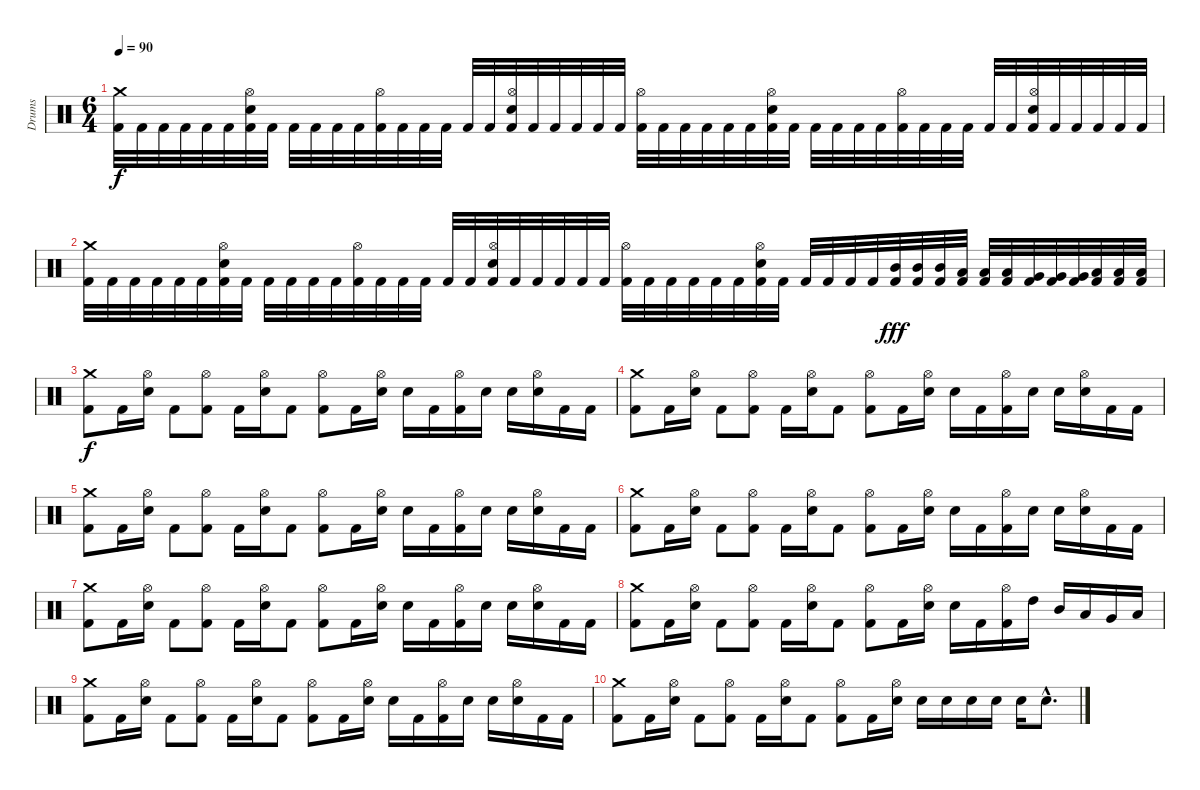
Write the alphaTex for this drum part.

\track ("Drums" "Drums") {instrument percussion}
\staff {score}
\articulation defaults
\ts (6 4)
\tempo 90
\clef neutral
\ks c
("Crash medium (hit)" "Kick (hit) 2").32{dy f} "Kick (hit) 2".32 "Kick (hit) 2".32 "Kick (hit) 2".32 "Kick (hit) 2".32 "Kick (hit) 2".32 ("Hi-Hat (open)" "Electric Snare (hit)" "Kick (hit) 2").32 "Kick (hit) 2".32 "Kick (hit) 2".32 "Kick (hit) 2".32 "Kick (hit) 2".32 "Kick (hit) 2".32 ("Hi-Hat (open)" "Kick (hit) 2").32 "Kick (hit) 2".32 "Kick (hit) 2".32 "Kick (hit) 2".32 "Kick (hit) 2".32 "Kick (hit) 2".32 ("Hi-Hat (open)" "Electric Snare (hit)" "Kick (hit) 2").32 "Kick (hit) 2".32 "Kick (hit) 2".32 "Kick (hit) 2".32 "Kick (hit) 2".32 "Kick (hit) 2".32 ("Hi-Hat (open)" "Kick (hit) 2").32 "Kick (hit) 2".32 "Kick (hit) 2".32 "Kick (hit) 2".32 "Kick (hit) 2".32 "Kick (hit) 2".32 ("Hi-Hat (open)" "Electric Snare (hit)" "Kick (hit) 2").32 "Kick (hit) 2".32 "Kick (hit) 2".32 "Kick (hit) 2".32 "Kick (hit) 2".32 "Kick (hit) 2".32 ("Hi-Hat (open)" "Kick (hit) 2").32 "Kick (hit) 2".32 "Kick (hit) 2".32 "Kick (hit) 2".32 "Kick (hit) 2".32 "Kick (hit) 2".32 ("Hi-Hat (open)" "Electric Snare (hit)" "Kick (hit) 2").32 "Kick (hit) 2".32 "Kick (hit) 2".32 "Kick (hit) 2".32 "Kick (hit) 2".32 "Kick (hit) 2".32 |
("Crash medium (hit)" "Kick (hit) 2").32 "Kick (hit) 2".32 "Kick (hit) 2".32 "Kick (hit) 2".32 "Kick (hit) 2".32 "Kick (hit) 2".32 ("Hi-Hat (open)" "Electric Snare (hit)" "Kick (hit) 2").32 "Kick (hit) 2".32 "Kick (hit) 2".32 "Kick (hit) 2".32 "Kick (hit) 2".32 "Kick (hit) 2".32 ("Hi-Hat (open)" "Kick (hit) 2").32 "Kick (hit) 2".32 "Kick (hit) 2".32 "Kick (hit) 2".32 "Kick (hit) 2".32 "Kick (hit) 2".32 ("Hi-Hat (open)" "Electric Snare (hit)" "Kick (hit) 2").32 "Kick (hit) 2".32 "Kick (hit) 2".32 "Kick (hit) 2".32 "Kick (hit) 2".32 "Kick (hit) 2".32 ("Hi-Hat (open)" "Kick (hit) 2").32 "Kick (hit) 2".32 "Kick (hit) 2".32 "Kick (hit) 2".32 "Kick (hit) 2".32 "Kick (hit) 2".32 ("Hi-Hat (open)" "Electric Snare (hit)" "Kick (hit) 2").32 "Kick (hit) 2".32 "Kick (hit) 2".32 "Kick (hit) 2".32 "Kick (hit) 2".32 "Kick (hit) 2".32 ("Mid Tom (hit)" "Kick (hit) 2").32{dy fff} ("Mid Tom (hit)" "Kick (hit) 2").32 ("Mid Tom (hit)" "Kick (hit) 2").32 ("Low Tom (hit)" "Kick (hit) 2").32 ("Low Tom (hit)" "Kick (hit) 2").32 ("Low Tom (hit)" "Kick (hit) 2").32 ("Very Low Tom (hit)" "Kick (hit) 2").32 ("Very Low Tom (hit)" "Kick (hit) 2").32 ("Very Low Tom (hit)" "Kick (hit) 2").32 ("Low Floor Tom (hit)" "Kick (hit) 2").32 ("Low Floor Tom (hit)" "Kick (hit) 2").32 ("Low Floor Tom (hit)" "Kick (hit) 2").32 |
("Crash medium (hit)" "Kick (hit) 2").8{dy f} "Kick (hit) 2".16 ("Hi-Hat (open)" "Electric Snare (hit)").16 "Kick (hit) 2".8 ("Hi-Hat (open)" "Kick (hit) 2").8 "Kick (hit) 2".16 ("Hi-Hat (open)" "Electric Snare (hit)").16 "Kick (hit) 2".8 ("Hi-Hat (open)" "Kick (hit) 2").8 "Kick (hit) 2".16 ("Hi-Hat (open)" "Electric Snare (hit)").16 "Electric Snare (hit)".16 "Kick (hit) 2".16 ("Hi-Hat (open)" "Kick (hit) 2").16 "Electric Snare (hit)".16 "Electric Snare (hit)".16 ("Hi-Hat (open)" "Electric Snare (hit)").16 "Kick (hit) 2".16 "Kick (hit) 2".16 |
("Crash medium (hit)" "Kick (hit) 2").8 "Kick (hit) 2".16 ("Hi-Hat (open)" "Electric Snare (hit)").16 "Kick (hit) 2".8 ("Hi-Hat (open)" "Kick (hit) 2").8 "Kick (hit) 2".16 ("Hi-Hat (open)" "Electric Snare (hit)").16 "Kick (hit) 2".8 ("Hi-Hat (open)" "Kick (hit) 2").8 "Kick (hit) 2".16 ("Hi-Hat (open)" "Electric Snare (hit)").16 "Electric Snare (hit)".16 "Kick (hit) 2".16 ("Hi-Hat (open)" "Kick (hit) 2").16 "Electric Snare (hit)".16 "Electric Snare (hit)".16 ("Hi-Hat (open)" "Electric Snare (hit)").16 "Kick (hit) 2".16 "Kick (hit) 2".16 |
("Crash medium (hit)" "Kick (hit) 2").8 "Kick (hit) 2".16 ("Hi-Hat (open)" "Electric Snare (hit)").16 "Kick (hit) 2".8 ("Hi-Hat (open)" "Kick (hit) 2").8 "Kick (hit) 2".16 ("Hi-Hat (open)" "Electric Snare (hit)").16 "Kick (hit) 2".8 ("Hi-Hat (open)" "Kick (hit) 2").8 "Kick (hit) 2".16 ("Hi-Hat (open)" "Electric Snare (hit)").16 "Electric Snare (hit)".16 "Kick (hit) 2".16 ("Hi-Hat (open)" "Kick (hit) 2").16 "Electric Snare (hit)".16 "Electric Snare (hit)".16 ("Hi-Hat (open)" "Electric Snare (hit)").16 "Kick (hit) 2".16 "Kick (hit) 2".16 |
("Crash medium (hit)" "Kick (hit) 2").8 "Kick (hit) 2".16 ("Hi-Hat (open)" "Electric Snare (hit)").16 "Kick (hit) 2".8 ("Hi-Hat (open)" "Kick (hit) 2").8 "Kick (hit) 2".16 ("Hi-Hat (open)" "Electric Snare (hit)").16 "Kick (hit) 2".8 ("Hi-Hat (open)" "Kick (hit) 2").8 "Kick (hit) 2".16 ("Hi-Hat (open)" "Electric Snare (hit)").16 "Electric Snare (hit)".16 "Kick (hit) 2".16 ("Hi-Hat (open)" "Kick (hit) 2").16 "Electric Snare (hit)".16 "Electric Snare (hit)".16 ("Hi-Hat (open)" "Electric Snare (hit)").16 "Kick (hit) 2".16 "Kick (hit) 2".16 |
("Crash medium (hit)" "Kick (hit) 2").8 "Kick (hit) 2".16 ("Hi-Hat (open)" "Electric Snare (hit)").16 "Kick (hit) 2".8 ("Hi-Hat (open)" "Kick (hit) 2").8 "Kick (hit) 2".16 ("Hi-Hat (open)" "Electric Snare (hit)").16 "Kick (hit) 2".8 ("Hi-Hat (open)" "Kick (hit) 2").8 "Kick (hit) 2".16 ("Hi-Hat (open)" "Electric Snare (hit)").16 "Electric Snare (hit)".16 "Kick (hit) 2".16 ("Hi-Hat (open)" "Kick (hit) 2").16 "Electric Snare (hit)".16 "Electric Snare (hit)".16 ("Hi-Hat (open)" "Electric Snare (hit)").16 "Kick (hit) 2".16 "Kick (hit) 2".16 |
("Crash medium (hit)" "Kick (hit) 2").8 "Kick (hit) 2".16 ("Hi-Hat (open)" "Electric Snare (hit)").16 "Kick (hit) 2".8 ("Hi-Hat (open)" "Kick (hit) 2").8 "Kick (hit) 2".16 ("Hi-Hat (open)" "Electric Snare (hit)").16 "Kick (hit) 2".8 ("Hi-Hat (open)" "Kick (hit) 2").8 "Kick (hit) 2".16 ("Hi-Hat (open)" "Electric Snare (hit)").16 "Electric Snare (hit)".16 "Kick (hit) 2".16 ("Hi-Hat (open)" "Kick (hit) 2").16 "High Tom (hit)".16 "Mid Tom (hit)".16 "Low Tom (hit)".16 "Very Low Tom (hit)".16 "Low Floor Tom (hit)".16 |
("Crash medium (hit)" "Kick (hit) 2").8 "Kick (hit) 2".16 ("Hi-Hat (open)" "Electric Snare (hit)").16 "Kick (hit) 2".8 ("Hi-Hat (open)" "Kick (hit) 2").8 "Kick (hit) 2".16 ("Hi-Hat (open)" "Electric Snare (hit)").16 "Kick (hit) 2".8 ("Hi-Hat (open)" "Kick (hit) 2").8 "Kick (hit) 2".16 ("Hi-Hat (open)" "Electric Snare (hit)").16 "Electric Snare (hit)".16 "Kick (hit) 2".16 ("Hi-Hat (open)" "Kick (hit) 2").16 "Electric Snare (hit)".16 "Electric Snare (hit)".16 ("Hi-Hat (open)" "Electric Snare (hit)").16 "Kick (hit) 2".16 "Kick (hit) 2".16 |
("Crash medium (hit)" "Kick (hit) 2").8 "Kick (hit) 2".16 ("Hi-Hat (open)" "Electric Snare (hit)").16 "Kick (hit) 2".8 ("Hi-Hat (open)" "Kick (hit) 2").8 "Kick (hit) 2".16 ("Hi-Hat (open)" "Electric Snare (hit)").16 "Kick (hit) 2".8 ("Hi-Hat (open)" "Kick (hit) 2").8 "Kick (hit) 2".16 ("Hi-Hat (open)" "Electric Snare (hit)").16 "Electric Snare (hit)".16 "Electric Snare (hit)".16 "Electric Snare (hit)".16 "Electric Snare (hit)".16 "Electric Snare (hit)".16 "Electric Snare (hit)"{hac}.8{d}
